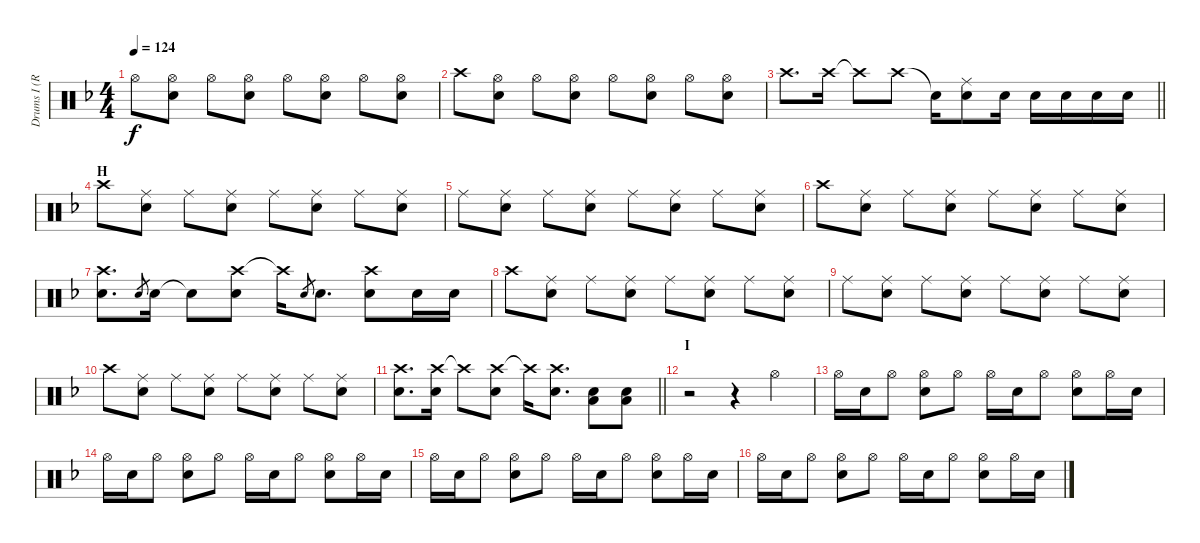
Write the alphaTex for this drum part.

\track ("Drums I (RUKA)" "Drums I (R") {instrument percussion}
\staff {score}
\articulation defaults
\ts (4 4)
\tempo 124
\clef neutral
\ks f "Hi-Hat (open)".8{dy f}
("Hi-Hat (open)" "Snare (hit) 2").8 "Hi-Hat (open)".8 ("Hi-Hat (open)" "Snare (hit) 2").8 "Hi-Hat (open)".8 ("Hi-Hat (open)" "Snare (hit) 2").8 "Hi-Hat (open)".8 ("Hi-Hat (open)" "Snare (hit) 2").8 |
"Crash high (hit)".8 ("Hi-Hat (open)" "Snare (hit) 2").8 "Hi-Hat (open)".8 ("Hi-Hat (open)" "Snare (hit) 2").8 "Hi-Hat (open)".8 ("Hi-Hat (open)" "Snare (hit) 2").8 "Hi-Hat (open)".8 ("Hi-Hat (open)" "Snare (hit) 2").8 |
\barLineRight lightlight "Crash high (hit)".8{d} "Crash high (hit)".16 "Crash high (hit)"{t}.8 "Crash high (hit)".8 "Snare (hit)"{t}.16
("Ride (middle)" "Snare (hit) 2").8 "Snare (hit) 2".16 "Snare (hit) 2".16 "Snare (hit) 2".16 "Snare (hit) 2".16 "Snare (hit) 2".16 |
\section ("" "H")
"Crash high (hit)".8 ("Ride (middle)" "Snare (hit) 2").8 "Ride (middle)".8 ("Ride (middle)" "Snare (hit) 2").8 "Ride (middle)".8 ("Ride (middle)" "Snare (hit) 2").8 "Ride (middle)".8 ("Ride (middle)" "Snare (hit) 2").8 |
"Ride (middle)".8 ("Ride (middle)" "Snare (hit) 2").8 "Ride (middle)".8 ("Ride (middle)" "Snare (hit) 2").8 "Ride (middle)".8 ("Ride (middle)" "Snare (hit) 2").8 "Ride (middle)".8 ("Ride (middle)" "Snare (hit) 2").8 |
"Crash high (hit)".8 ("Ride (middle)" "Snare (hit) 2").8 "Ride (middle)".8 ("Ride (middle)" "Snare (hit) 2").8 "Ride (middle)".8 ("Ride (middle)" "Snare (hit) 2").8 "Ride (middle)".8 ("Ride (middle)" "Snare (hit) 2").8 |
("Crash high (hit)" "Snare (hit) 2").8{d} "Snare (hit) 2".8{gr} "Snare (hit) 2".16 "Snare (hit) 2"{t}.8 ("Crash high (hit)" "Snare (hit) 2").8 "Crash high (hit)"{t}.16 "Snare (hit) 2".8{gr} "Snare (hit) 2".8{d} ("Crash high (hit)" "Snare (hit) 2").8 "Snare (hit) 2".16 "Snare (hit) 2".16 |
"Crash high (hit)".8 ("Ride (middle)" "Snare (hit) 2").8 "Ride (middle)".8 ("Ride (middle)" "Snare (hit) 2").8 "Ride (middle)".8 ("Ride (middle)" "Snare (hit) 2").8 "Ride (middle)".8 ("Ride (middle)" "Snare (hit) 2").8 |
"Ride (middle)".8 ("Ride (middle)" "Snare (hit) 2").8 "Ride (middle)".8 ("Ride (middle)" "Snare (hit) 2").8 "Ride (middle)".8 ("Ride (middle)" "Snare (hit) 2").8 "Ride (middle)".8 ("Ride (middle)" "Snare (hit) 2").8 |
"Crash high (hit)".8 ("Ride (middle)" "Snare (hit) 2").8 "Ride (middle)".8 ("Ride (middle)" "Snare (hit) 2").8 "Ride (middle)".8 ("Ride (middle)" "Snare (hit) 2").8 "Ride (middle)".8 ("Ride (middle)" "Snare (hit) 2").8 |
\barLineRight lightlight
("Crash high (hit)" "Snare (hit) 2").8{d} ("Crash high (hit)" "Snare (hit) 2").16 "Crash high (hit)"{t}.8 ("Crash high (hit)" "Snare (hit) 2").8 "Crash high (hit)"{t}.16 ("Crash high (hit)" "Snare (hit) 2").8{d} ("Snare (hit) 2" "Low Tom (hit)").8 ("Snare (hit) 2" "Low Tom (hit)").8 |
\section ("" "I")
r.2 r.4 "Hi-Hat (open)".4 |
"Hi-Hat (open)".16 "Snare (hit) 2".16 "Hi-Hat (open)".8 ("Hi-Hat (open)" "Snare (hit) 2").8 "Hi-Hat (open)".8 "Hi-Hat (open)".16 "Snare (hit) 2".16 "Hi-Hat (open)".8 ("Hi-Hat (open)" "Snare (hit) 2").8 "Hi-Hat (open)".16 "Snare (hit) 2".16 |
"Hi-Hat (open)".16 "Snare (hit) 2".16 "Hi-Hat (open)".8 ("Hi-Hat (open)" "Snare (hit) 2").8 "Hi-Hat (open)".8 "Hi-Hat (open)".16 "Snare (hit) 2".16 "Hi-Hat (open)".8 ("Hi-Hat (open)" "Snare (hit) 2").8 "Hi-Hat (open)".16 "Snare (hit) 2".16 |
"Hi-Hat (open)".16 "Snare (hit) 2".16 "Hi-Hat (open)".8 ("Hi-Hat (open)" "Snare (hit) 2").8 "Hi-Hat (open)".8 "Hi-Hat (open)".16 "Snare (hit) 2".16 "Hi-Hat (open)".8 ("Hi-Hat (open)" "Snare (hit) 2").8 "Hi-Hat (open)".16 "Snare (hit) 2".16 |
"Hi-Hat (open)".16 "Snare (hit) 2".16 "Hi-Hat (open)".8 ("Hi-Hat (open)" "Snare (hit) 2").8 "Hi-Hat (open)".8 "Hi-Hat (open)".16 "Snare (hit) 2".16 "Hi-Hat (open)".8 ("Hi-Hat (open)" "Snare (hit) 2").8 "Hi-Hat (open)".16 "Snare (hit) 2".16
